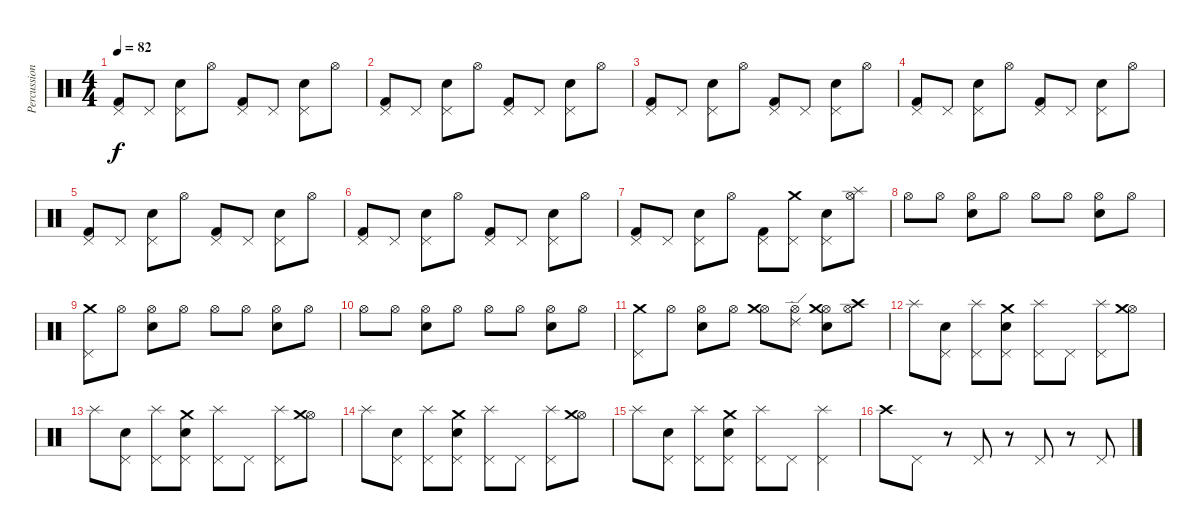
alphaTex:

\track ("Percussion" "Percussion") {instrument percussion}
\staff {score}
\articulation defaults
\ts (4 4)
\tempo 82
\clef neutral
\ks c
("Kick (hit) 2" "Pedal Hi-Hat (hit)").8{dy f} "Pedal Hi-Hat (hit)".8 ("Pedal Hi-Hat (hit)" "Snare (hit) 2").8 "Hi-Hat (open)".8 ("Kick (hit) 2" "Pedal Hi-Hat (hit)").8 "Pedal Hi-Hat (hit)".8 ("Pedal Hi-Hat (hit)" "Snare (hit) 2").8 "Hi-Hat (open)".8 |
("Kick (hit) 2" "Pedal Hi-Hat (hit)").8 "Pedal Hi-Hat (hit)".8 ("Pedal Hi-Hat (hit)" "Snare (hit) 2").8 "Hi-Hat (open)".8 ("Kick (hit) 2" "Pedal Hi-Hat (hit)").8 "Pedal Hi-Hat (hit)".8 ("Pedal Hi-Hat (hit)" "Snare (hit) 2").8 "Hi-Hat (open)".8 |
("Kick (hit) 2" "Pedal Hi-Hat (hit)").8 "Pedal Hi-Hat (hit)".8 ("Pedal Hi-Hat (hit)" "Snare (hit) 2").8 "Hi-Hat (open)".8 ("Kick (hit) 2" "Pedal Hi-Hat (hit)").8 "Pedal Hi-Hat (hit)".8 ("Pedal Hi-Hat (hit)" "Snare (hit) 2").8 "Hi-Hat (open)".8 |
("Kick (hit) 2" "Pedal Hi-Hat (hit)").8 "Pedal Hi-Hat (hit)".8 ("Pedal Hi-Hat (hit)" "Snare (hit) 2").8 "Hi-Hat (open)".8 ("Kick (hit) 2" "Pedal Hi-Hat (hit)").8 "Pedal Hi-Hat (hit)".8 ("Pedal Hi-Hat (hit)" "Snare (hit) 2").8 "Hi-Hat (open)".8 |
("Kick (hit) 2" "Pedal Hi-Hat (hit)").8 "Pedal Hi-Hat (hit)".8 ("Pedal Hi-Hat (hit)" "Snare (hit) 2").8 "Hi-Hat (open)".8 ("Kick (hit) 2" "Pedal Hi-Hat (hit)").8 "Pedal Hi-Hat (hit)".8 ("Pedal Hi-Hat (hit)" "Snare (hit) 2").8 "Hi-Hat (open)".8 |
("Kick (hit) 2" "Pedal Hi-Hat (hit)").8 "Pedal Hi-Hat (hit)".8 ("Pedal Hi-Hat (hit)" "Snare (hit) 2").8 "Hi-Hat (open)".8 ("Kick (hit) 2" "Pedal Hi-Hat (hit)").8 "Pedal Hi-Hat (hit)".8 ("Pedal Hi-Hat (hit)" "Snare (hit) 2").8 "Hi-Hat (open)".8 |
("Kick (hit) 2" "Pedal Hi-Hat (hit)").8 "Pedal Hi-Hat (hit)".8 ("Pedal Hi-Hat (hit)" "Snare (hit) 2").8 "Hi-Hat (open)".8 ("Kick (hit) 2" "Pedal Hi-Hat (hit)").8 ("Crash medium (hit)" "Pedal Hi-Hat (hit)").8 ("Pedal Hi-Hat (hit)" "Snare (hit) 2").8 ("Hi-Hat (open)" "Splash (hit)").8 |
"Hi-Hat (open)".8 "Hi-Hat (open)".8 ("Hi-Hat (open)" "Snare (hit) 2").8 "Hi-Hat (open)".8 "Hi-Hat (open)".8 "Hi-Hat (open)".8 ("Hi-Hat (open)" "Snare (hit) 2").8 "Hi-Hat (open)".8 |
("Pedal Hi-Hat (hit)" "Crash medium (hit)").8 "Hi-Hat (open)".8 ("Hi-Hat (open)" "Snare (hit) 2").8 "Hi-Hat (open)".8 "Hi-Hat (open)".8 "Hi-Hat (open)".8 ("Hi-Hat (open)" "Snare (hit) 2").8 "Hi-Hat (open)".8 |
"Hi-Hat (open)".8 "Hi-Hat (open)".8 ("Hi-Hat (open)" "Snare (hit) 2").8 "Hi-Hat (open)".8 "Hi-Hat (open)".8 "Hi-Hat (open)".8 ("Hi-Hat (open)" "Snare (hit) 2").8 "Hi-Hat (open)".8 |
("Pedal Hi-Hat (hit)" "Crash medium (hit)").8 "Hi-Hat (open)".8 ("Hi-Hat (open)" "Snare (hit) 2").8 "Hi-Hat (open)".8 ("Hi-Hat (open)" "Crash medium (hit)").8 ("Hi-Hat (open)" "Ride (edge) 2").8 ("Hi-Hat (open)" "Snare (hit) 2" "Crash medium (hit)").8 ("Hi-Hat (open)" "Crash high (hit)").8 |
"Splash (hit)".8 ("Pedal Hi-Hat (hit)" "Snare (hit) 2").8 ("Pedal Hi-Hat (hit)" "Splash (hit)").8 ("Pedal Hi-Hat (hit)" "Snare (hit) 2" "Crash medium (hit)").8 ("Pedal Hi-Hat (hit)" "Splash (hit)").8 "Pedal Hi-Hat (hit)".8 ("Pedal Hi-Hat (hit)" "Splash (hit)").8 ("Hi-Hat (open)" "Crash medium (hit)").8 |
"Splash (hit)".8 ("Pedal Hi-Hat (hit)" "Snare (hit) 2").8 ("Pedal Hi-Hat (hit)" "Splash (hit)").8 ("Pedal Hi-Hat (hit)" "Snare (hit) 2" "Crash medium (hit)").8 ("Pedal Hi-Hat (hit)" "Splash (hit)").8 "Pedal Hi-Hat (hit)".8 ("Pedal Hi-Hat (hit)" "Splash (hit)").8 ("Hi-Hat (open)" "Crash medium (hit)").8 |
"Splash (hit)".8 ("Pedal Hi-Hat (hit)" "Snare (hit) 2").8 ("Pedal Hi-Hat (hit)" "Splash (hit)").8 ("Pedal Hi-Hat (hit)" "Snare (hit) 2" "Crash medium (hit)").8 ("Pedal Hi-Hat (hit)" "Splash (hit)").8 "Pedal Hi-Hat (hit)".8 ("Pedal Hi-Hat (hit)" "Splash (hit)").8 ("Hi-Hat (open)" "Crash medium (hit)").8 |
"Splash (hit)".8 ("Pedal Hi-Hat (hit)" "Snare (hit) 2").8 ("Pedal Hi-Hat (hit)" "Splash (hit)").8 ("Pedal Hi-Hat (hit)" "Snare (hit) 2" "Crash medium (hit)").8 ("Pedal Hi-Hat (hit)" "Splash (hit)").8 "Pedal Hi-Hat (hit)".8 ("Pedal Hi-Hat (hit)" "Splash (hit)").4 |
"Crash high (hit)".8 "Pedal Hi-Hat (hit)".8 r.8 "Pedal Hi-Hat (hit)".8 r.8 "Pedal Hi-Hat (hit)".8 r.8 "Pedal Hi-Hat (hit)".8
